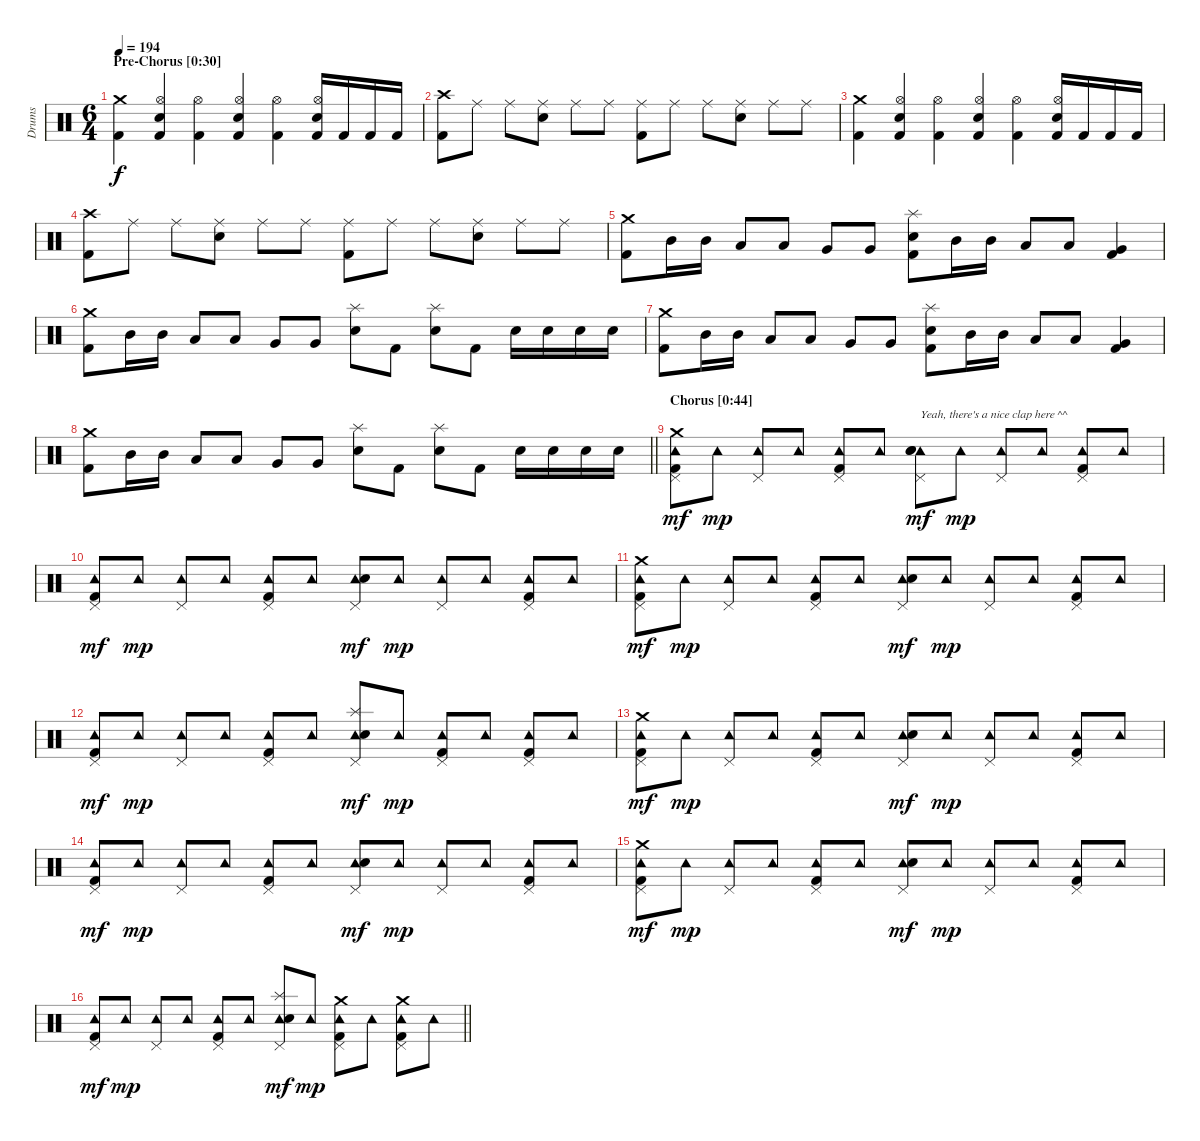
\track ("Drums" "Drums") {instrument percussion}
\staff {score}
\articulation defaults
\ts (6 4)
\section ("" "Pre-Chorus [0:30]")
\tempo 194
\clef neutral
\ks c
("Crash medium (hit)" "Kick (hit) 2").4{dy f} ("Hi-Hat (open)" "Electric Snare (hit)" "Kick (hit) 2").4 ("Hi-Hat (open)" "Kick (hit) 2").4 ("Hi-Hat (open)" "Electric Snare (hit)" "Kick (hit) 2").4 ("Hi-Hat (open)" "Kick (hit) 2").4 ("Hi-Hat (open)" "Electric Snare (hit)" "Kick (hit) 2").16 "Kick (hit) 2".16 "Kick (hit) 2".16 "Kick (hit) 2".16 |
("Crash high (hit)" "Kick (hit) 2").8 "Ride (middle)".8 "Ride (middle)".8 ("Ride (middle)" "Electric Snare (hit)").8 "Ride (middle)".8 "Ride (middle)".8 ("Ride (middle)" "Kick (hit) 2").8 "Ride (middle)".8 "Ride (middle)".8 ("Ride (middle)" "Electric Snare (hit)").8 "Ride (middle)".8 "Ride (middle)".8 |
("Crash medium (hit)" "Kick (hit) 2").4 ("Hi-Hat (open)" "Electric Snare (hit)" "Kick (hit) 2").4 ("Hi-Hat (open)" "Kick (hit) 2").4 ("Hi-Hat (open)" "Electric Snare (hit)" "Kick (hit) 2").4 ("Hi-Hat (open)" "Kick (hit) 2").4 ("Hi-Hat (open)" "Electric Snare (hit)" "Kick (hit) 2").16 "Kick (hit) 2".16 "Kick (hit) 2".16 "Kick (hit) 2".16 |
("Crash high (hit)" "Kick (hit) 2").8 "Ride (middle)".8 "Ride (middle)".8 ("Ride (middle)" "Electric Snare (hit)").8 "Ride (middle)".8 "Ride (middle)".8 ("Ride (middle)" "Kick (hit) 2").8 "Ride (middle)".8 "Ride (middle)".8 ("Ride (middle)" "Electric Snare (hit)").8 "Ride (middle)".8 "Ride (middle)".8 |
("Crash medium (hit)" "Kick (hit) 2").8 "Mid Tom (hit)".16 "Mid Tom (hit)".16 "Low Tom (hit)".8 "Low Tom (hit)".8 "Very Low Tom (hit)".8 "Very Low Tom (hit)".8 ("Splash (hit)" "Electric Snare (hit)" "Kick (hit) 2").8 "Mid Tom (hit)".16 "Mid Tom (hit)".16 "Low Tom (hit)".8 "Low Tom (hit)".8 ("Very Low Tom (hit)" "Kick (hit) 2").4 |
("Crash medium (hit)" "Kick (hit) 2").8 "Mid Tom (hit)".16 "Mid Tom (hit)".16 "Low Tom (hit)".8 "Low Tom (hit)".8 "Very Low Tom (hit)".8 "Very Low Tom (hit)".8 ("Splash (hit)" "Electric Snare (hit)").8 "Kick (hit) 2".8 ("Splash (hit)" "Electric Snare (hit)").8 "Kick (hit) 2".8 "Electric Snare (hit)".16 "Electric Snare (hit)".16 "Electric Snare (hit)".16 "Electric Snare (hit)".16 |
("Crash medium (hit)" "Kick (hit) 2").8 "Mid Tom (hit)".16 "Mid Tom (hit)".16 "Low Tom (hit)".8 "Low Tom (hit)".8 "Very Low Tom (hit)".8 "Very Low Tom (hit)".8 ("Splash (hit)" "Electric Snare (hit)" "Kick (hit) 2").8 "Mid Tom (hit)".16 "Mid Tom (hit)".16 "Low Tom (hit)".8 "Low Tom (hit)".8 ("Very Low Tom (hit)" "Kick (hit) 2").4 |
\barLineRight lightlight
("Crash medium (hit)" "Kick (hit) 2").8 "Mid Tom (hit)".16 "Mid Tom (hit)".16 "Low Tom (hit)".8 "Low Tom (hit)".8 "Very Low Tom (hit)".8 "Very Low Tom (hit)".8 ("Splash (hit)" "Electric Snare (hit)").8 "Kick (hit) 2".8 ("Splash (hit)" "Electric Snare (hit)").8 "Kick (hit) 2".8 "Electric Snare (hit)".16 "Electric Snare (hit)".16 "Electric Snare (hit)".16 "Electric Snare (hit)".16 |
\section ("" "Chorus [0:44]")
("Crash medium (hit)" "Tambourine (hit)" "Pedal Hi-Hat (hit)" "Kick (hit) 2").8{dy mf} "Tambourine (hit)".8{dy mp} ("Tambourine (hit)" "Pedal Hi-Hat (hit)").8 "Tambourine (hit)".8 ("Tambourine (hit)" "Pedal Hi-Hat (hit)" "Kick (hit) 2").8 "Tambourine (hit)".8 ("Tambourine (hit)" "Pedal Hi-Hat (hit)" "Hand Clap (hit)" "Electric Snare (hit)").8{txt "Yeah, there's a nice clap here ^^" dy mf} "Tambourine (hit)".8{dy mp} ("Tambourine (hit)" "Pedal Hi-Hat (hit)").8 "Tambourine (hit)".8 ("Tambourine (hit)" "Pedal Hi-Hat (hit)" "Kick (hit) 2").8 "Tambourine (hit)".8 |
("Tambourine (hit)" "Pedal Hi-Hat (hit)" "Kick (hit) 2").8{dy mf} "Tambourine (hit)".8{dy mp} ("Tambourine (hit)" "Pedal Hi-Hat (hit)").8 "Tambourine (hit)".8 ("Tambourine (hit)" "Pedal Hi-Hat (hit)" "Kick (hit) 2").8 "Tambourine (hit)".8 ("Tambourine (hit)" "Pedal Hi-Hat (hit)" "Electric Snare (hit)").8{dy mf} "Tambourine (hit)".8{dy mp} ("Tambourine (hit)" "Pedal Hi-Hat (hit)").8 "Tambourine (hit)".8 ("Tambourine (hit)" "Pedal Hi-Hat (hit)" "Kick (hit) 2").8 "Tambourine (hit)".8 |
("Crash medium (hit)" "Tambourine (hit)" "Pedal Hi-Hat (hit)" "Kick (hit) 2").8{dy mf} "Tambourine (hit)".8{dy mp} ("Tambourine (hit)" "Pedal Hi-Hat (hit)").8 "Tambourine (hit)".8 ("Tambourine (hit)" "Pedal Hi-Hat (hit)" "Kick (hit) 2").8 "Tambourine (hit)".8 ("Tambourine (hit)" "Pedal Hi-Hat (hit)" "Electric Snare (hit)").8{dy mf} "Tambourine (hit)".8{dy mp} ("Tambourine (hit)" "Pedal Hi-Hat (hit)").8 "Tambourine (hit)".8 ("Tambourine (hit)" "Pedal Hi-Hat (hit)" "Kick (hit) 2").8 "Tambourine (hit)".8 |
("Tambourine (hit)" "Pedal Hi-Hat (hit)" "Kick (hit) 2").8{dy mf} "Tambourine (hit)".8{dy mp} ("Tambourine (hit)" "Pedal Hi-Hat (hit)").8 "Tambourine (hit)".8 ("Tambourine (hit)" "Pedal Hi-Hat (hit)" "Kick (hit) 2").8 "Tambourine (hit)".8 ("Splash (hit)" "Tambourine (hit)" "Pedal Hi-Hat (hit)" "Electric Snare (hit)").8{dy mf} "Tambourine (hit)".8{dy mp} ("Tambourine (hit)" "Pedal Hi-Hat (hit)" "Kick (hit) 2").8 "Tambourine (hit)".8 ("Tambourine (hit)" "Pedal Hi-Hat (hit)" "Kick (hit) 2").8 "Tambourine (hit)".8 |
("Crash medium (hit)" "Tambourine (hit)" "Pedal Hi-Hat (hit)" "Kick (hit) 2").8{dy mf} "Tambourine (hit)".8{dy mp} ("Tambourine (hit)" "Pedal Hi-Hat (hit)").8 "Tambourine (hit)".8 ("Tambourine (hit)" "Pedal Hi-Hat (hit)" "Kick (hit) 2").8 "Tambourine (hit)".8 ("Tambourine (hit)" "Pedal Hi-Hat (hit)" "Electric Snare (hit)").8{dy mf} "Tambourine (hit)".8{dy mp} ("Tambourine (hit)" "Pedal Hi-Hat (hit)").8 "Tambourine (hit)".8 ("Tambourine (hit)" "Pedal Hi-Hat (hit)" "Kick (hit) 2").8 "Tambourine (hit)".8 |
("Tambourine (hit)" "Pedal Hi-Hat (hit)" "Kick (hit) 2").8{dy mf} "Tambourine (hit)".8{dy mp} ("Tambourine (hit)" "Pedal Hi-Hat (hit)").8 "Tambourine (hit)".8 ("Tambourine (hit)" "Pedal Hi-Hat (hit)" "Kick (hit) 2").8 "Tambourine (hit)".8 ("Tambourine (hit)" "Pedal Hi-Hat (hit)" "Electric Snare (hit)").8{dy mf} "Tambourine (hit)".8{dy mp} ("Tambourine (hit)" "Pedal Hi-Hat (hit)").8 "Tambourine (hit)".8 ("Tambourine (hit)" "Pedal Hi-Hat (hit)" "Kick (hit) 2").8 "Tambourine (hit)".8 |
("Crash medium (hit)" "Tambourine (hit)" "Pedal Hi-Hat (hit)" "Kick (hit) 2").8{dy mf} "Tambourine (hit)".8{dy mp} ("Tambourine (hit)" "Pedal Hi-Hat (hit)").8 "Tambourine (hit)".8 ("Tambourine (hit)" "Pedal Hi-Hat (hit)" "Kick (hit) 2").8 "Tambourine (hit)".8 ("Tambourine (hit)" "Pedal Hi-Hat (hit)" "Electric Snare (hit)").8{dy mf} "Tambourine (hit)".8{dy mp} ("Tambourine (hit)" "Pedal Hi-Hat (hit)").8 "Tambourine (hit)".8 ("Tambourine (hit)" "Pedal Hi-Hat (hit)" "Kick (hit) 2").8 "Tambourine (hit)".8 |
\barLineRight lightlight
("Tambourine (hit)" "Pedal Hi-Hat (hit)" "Kick (hit) 2").8{dy mf} "Tambourine (hit)".8{dy mp} ("Tambourine (hit)" "Pedal Hi-Hat (hit)").8 "Tambourine (hit)".8 ("Tambourine (hit)" "Pedal Hi-Hat (hit)" "Kick (hit) 2").8 "Tambourine (hit)".8 ("Splash (hit)" "Tambourine (hit)" "Pedal Hi-Hat (hit)" "Electric Snare (hit)").8{dy mf} "Tambourine (hit)".8{dy mp} ("Crash medium (hit)" "Tambourine (hit)" "Pedal Hi-Hat (hit)" "Kick (hit) 2").8 "Tambourine (hit)".8 ("Crash medium (hit)" "Tambourine (hit)" "Pedal Hi-Hat (hit)" "Kick (hit) 2").8 "Tambourine (hit)".8
